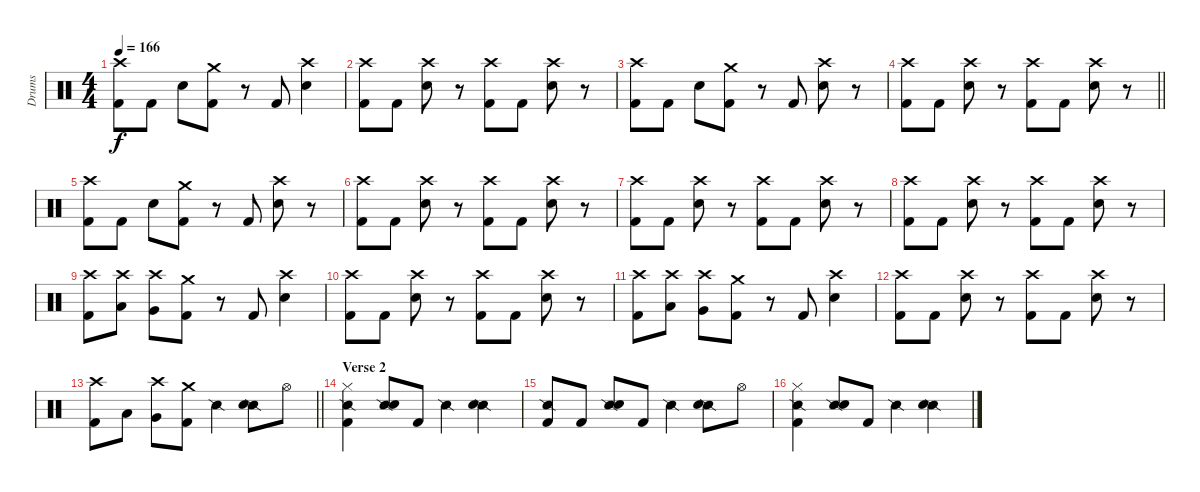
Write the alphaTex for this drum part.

\track ("Drums" "Drums") {instrument percussion}
\staff {score}
\articulation defaults
\ts (4 4)
\tempo 166
\clef neutral
\ks c
("Crash high (hit)" "Kick (hit) 2").8{dy f} "Kick (hit) 2".8 "Electric Snare (hit)".8 ("Crash medium (hit)" "Kick (hit) 2").8 r.8 "Kick (hit) 2".8 ("Crash high (hit)" "Electric Snare (hit)").4 |
("Crash high (hit)" "Kick (hit) 2").8 "Kick (hit) 2".8 ("Crash high (hit)" "Electric Snare (hit)").8 r.8 ("Crash high (hit)" "Kick (hit) 2").8 "Kick (hit) 2".8 ("Crash high (hit)" "Electric Snare (hit)").8 r.8 |
("Crash high (hit)" "Kick (hit) 2").8 "Kick (hit) 2".8 "Electric Snare (hit)".8 ("Crash medium (hit)" "Kick (hit) 2").8 r.8 "Kick (hit) 2".8 ("Crash high (hit)" "Electric Snare (hit)").8 r.8 |
\barLineRight lightlight
("Crash high (hit)" "Kick (hit) 2").8 "Kick (hit) 2".8 ("Crash high (hit)" "Electric Snare (hit)").8 r.8 ("Crash high (hit)" "Kick (hit) 2").8 "Kick (hit) 2".8 ("Crash high (hit)" "Electric Snare (hit)").8 r.8 |
("Crash high (hit)" "Kick (hit) 2").8 "Kick (hit) 2".8 "Electric Snare (hit)".8 ("Crash medium (hit)" "Kick (hit) 2").8 r.8 "Kick (hit) 2".8 ("Crash high (hit)" "Electric Snare (hit)").8 r.8 |
("Crash high (hit)" "Kick (hit) 2").8 "Kick (hit) 2".8 ("Crash high (hit)" "Electric Snare (hit)").8 r.8 ("Crash high (hit)" "Kick (hit) 2").8 "Kick (hit) 2".8 ("Crash high (hit)" "Electric Snare (hit)").8 r.8 |
("Crash high (hit)" "Kick (hit) 2").8 "Kick (hit) 2".8 ("Crash high (hit)" "Electric Snare (hit)").8 r.8 ("Crash high (hit)" "Kick (hit) 2").8 "Kick (hit) 2".8 ("Crash high (hit)" "Electric Snare (hit)").8 r.8 |
("Crash high (hit)" "Kick (hit) 2").8 "Kick (hit) 2".8 ("Crash high (hit)" "Electric Snare (hit)").8 r.8 ("Crash high (hit)" "Kick (hit) 2").8 "Kick (hit) 2".8 ("Crash high (hit)" "Electric Snare (hit)").8 r.8 |
("Crash high (hit)" "Kick (hit) 2").8 ("Crash high (hit)" "Low Tom (hit)").8 ("Crash high (hit)" "Very Low Tom (hit)").8 ("Crash medium (hit)" "Kick (hit) 2").8 r.8 "Kick (hit) 2".8 ("Crash high (hit)" "Electric Snare (hit)").4 |
("Crash high (hit)" "Kick (hit) 2").8 "Kick (hit) 2".8 ("Crash high (hit)" "Electric Snare (hit)").8 r.8 ("Crash high (hit)" "Kick (hit) 2").8 "Kick (hit) 2".8 ("Crash high (hit)" "Electric Snare (hit)").8 r.8 |
("Crash high (hit)" "Kick (hit) 2").8 ("Crash high (hit)" "Low Tom (hit)").8 ("Crash high (hit)" "Very Low Tom (hit)").8 ("Crash medium (hit)" "Kick (hit) 2").8 r.8 "Kick (hit) 2".8 ("Crash high (hit)" "Electric Snare (hit)").4 |
("Crash high (hit)" "Kick (hit) 2").8 "Kick (hit) 2".8 ("Crash high (hit)" "Electric Snare (hit)").8 r.8 ("Crash high (hit)" "Kick (hit) 2").8 "Kick (hit) 2".8 ("Crash high (hit)" "Electric Snare (hit)").8 r.8 |
\barLineRight lightlight
("Crash high (hit)" "Kick (hit) 2").8 "Low Tom (hit)".8 ("Crash high (hit)" "Very Low Tom (hit)").8 ("Crash medium (hit)" "Kick (hit) 2").8 "Snare (side stick) 2".4 ("Snare (side stick) 2" "Electric Snare (hit)").8 "Hi-Hat (open)".8 |
\section ("" "Verse 2")
("Snare (side stick) 2" "Hi-Hat (closed)" "Kick (hit) 2").4 ("Snare (side stick) 2" "Electric Snare (hit)").8 "Kick (hit) 2".8 "Snare (side stick) 2".4 ("Snare (side stick) 2" "Electric Snare (hit)").4 |
("Snare (side stick) 2" "Kick (hit) 2").8 "Kick (hit) 2".8 ("Snare (side stick) 2" "Electric Snare (hit)").8 "Kick (hit) 2".8 "Snare (side stick) 2".4 ("Snare (side stick) 2" "Electric Snare (hit)").8 "Hi-Hat (open)".8 |
("Snare (side stick) 2" "Hi-Hat (closed)" "Kick (hit) 2").4 ("Snare (side stick) 2" "Electric Snare (hit)").8 "Kick (hit) 2".8 "Snare (side stick) 2".4 ("Snare (side stick) 2" "Electric Snare (hit)").4
